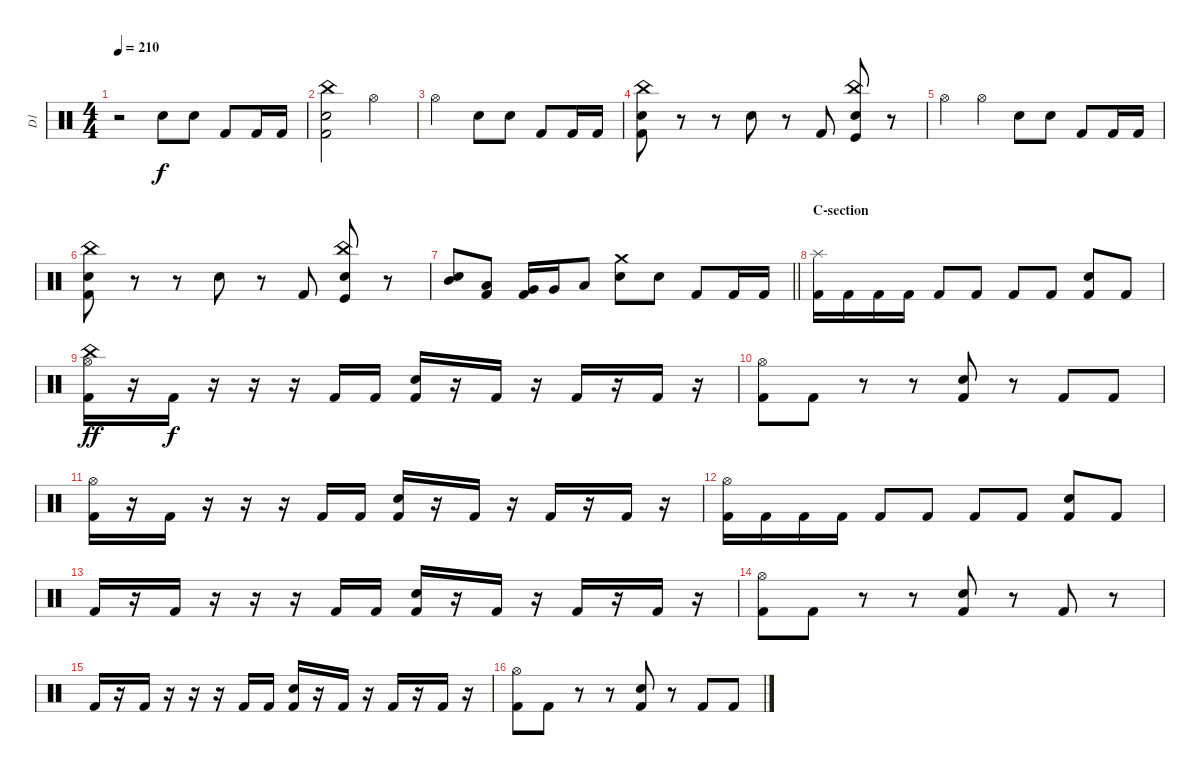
\track ("D1" "D1") {instrument percussion}
\staff {score}
\articulation defaults
\ts (4 4)
\tempo 210
\clef neutral
\ks c
r.2{dy f} "Snare (hit) 2".8 "Snare (hit) 2".8 "Kick (hit) 2".8 "Kick (hit) 2".16 "Kick (hit) 2".16 |
("China (hit)" "Snare (hit) 2" "Kick (hit) 2").2 "Hi-Hat (open)".2 |
"Hi-Hat (open)".2 "Snare (hit) 2".8 "Snare (hit) 2".8 "Kick (hit) 2".8 "Kick (hit) 2".16 "Kick (hit) 2".16 |
("China (hit)" "Snare (hit) 2" "Kick (hit) 2").8 r.8 r.8 "Snare (hit) 2".8 r.8 "Kick (hit) 2".8 ("China (hit)" "Snare (hit) 2" "Kick (hit)").8 r.8 |
"Hi-Hat (open)".4 "Hi-Hat (open)".4 "Snare (hit) 2".8 "Snare (hit) 2".8 "Kick (hit) 2".8 "Kick (hit) 2".16 "Kick (hit) 2".16 |
("China (hit)" "Snare (hit) 2" "Kick (hit) 2").8 r.8 r.8 "Snare (hit) 2".8 r.8 "Kick (hit) 2".8 ("China (hit)" "Snare (hit) 2" "Kick (hit)").8 r.8 |
\barLineRight lightlight
("Mid Tom (hit)" "Snare (hit) 2").8 ("Low Tom (hit)" "Kick (hit) 2").8 ("Very Low Tom (hit)" "Kick (hit) 2").16 "Very Low Tom (hit)".16 "Low Tom (hit)".8 ("Crash medium (hit)" "Snare (hit) 2").8 "Snare (hit) 2".8 "Kick (hit) 2".8 "Kick (hit) 2".16 "Kick (hit) 2".16 |
\section ("" "C-section")
("Splash (hit)" "Kick (hit) 2").16 "Kick (hit) 2".16 "Kick (hit) 2".16 "Kick (hit) 2".16 "Kick (hit) 2".8 "Kick (hit) 2".8 "Kick (hit) 2".8 "Kick (hit) 2".8 ("Snare (hit) 2" "Kick (hit) 2").8 "Kick (hit) 2".8 |
("Hi-Hat (open)" "Kick (hit) 2" "China (hit)").16{dy ff} r.16 "Kick (hit) 2".16{dy f} r.16 r.16 r.16 "Kick (hit) 2".16 "Kick (hit) 2".16 ("Snare (hit) 2" "Kick (hit) 2").16 r.16 "Kick (hit) 2".16 r.16 "Kick (hit) 2".16 r.16 "Kick (hit) 2".16 r.16 |
("Hi-Hat (open)" "Kick (hit) 2").8 "Kick (hit) 2".8 r.8 r.8 ("Snare (hit) 2" "Kick (hit) 2").8 r.8 "Kick (hit) 2".8 "Kick (hit) 2".8 |
("Hi-Hat (open)" "Kick (hit) 2").16 r.16 "Kick (hit) 2".16 r.16 r.16 r.16 "Kick (hit) 2".16 "Kick (hit) 2".16 ("Snare (hit) 2" "Kick (hit) 2").16 r.16 "Kick (hit) 2".16 r.16 "Kick (hit) 2".16 r.16 "Kick (hit) 2".16 r.16 |
("Hi-Hat (open)" "Kick (hit) 2").16 "Kick (hit) 2".16 "Kick (hit) 2".16 "Kick (hit) 2".16 "Kick (hit) 2".8 "Kick (hit) 2".8 "Kick (hit) 2".8 "Kick (hit) 2".8 ("Snare (hit) 2" "Kick (hit) 2").8 "Kick (hit) 2".8 |
"Kick (hit) 2".16 r.16 "Kick (hit) 2".16 r.16 r.16 r.16 "Kick (hit) 2".16 "Kick (hit) 2".16 ("Snare (hit) 2" "Kick (hit) 2").16 r.16 "Kick (hit) 2".16 r.16 "Kick (hit) 2".16 r.16 "Kick (hit) 2".16 r.16 |
("Hi-Hat (open)" "Kick (hit) 2").8 "Kick (hit) 2".8 r.8 r.8 ("Snare (hit) 2" "Kick (hit) 2").8 r.8 "Kick (hit) 2".8 r.8 |
"Kick (hit) 2".16 r.16 "Kick (hit) 2".16 r.16 r.16 r.16 "Kick (hit) 2".16 "Kick (hit) 2".16 ("Snare (hit) 2" "Kick (hit) 2").16 r.16 "Kick (hit) 2".16 r.16 "Kick (hit) 2".16 r.16 "Kick (hit) 2".16 r.16 |
("Hi-Hat (open)" "Kick (hit) 2").8 "Kick (hit) 2".8 r.8 r.8 ("Snare (hit) 2" "Kick (hit) 2").8 r.8 "Kick (hit) 2".8 "Kick (hit) 2".8
